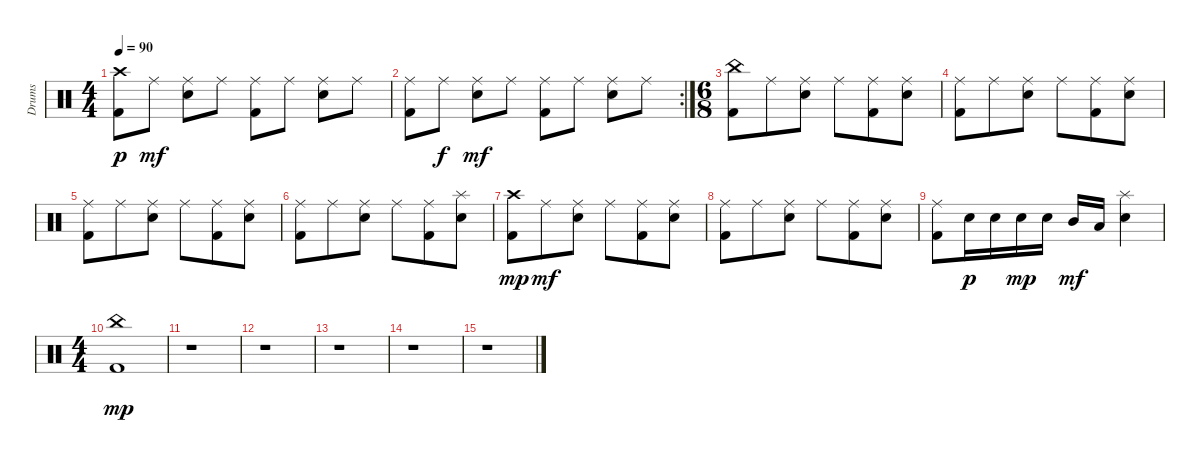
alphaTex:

\track ("Drums" "Drums") {instrument percussion}
\staff {score}
\articulation defaults
\ts (4 4)
\tempo 90
\clef neutral
\ks c
("Crash high (hit)" "Kick (hit) 2").8{dy p} "Ride (middle)".8{dy mf} ("Ride (middle)" "Electric Snare (hit)").8 "Ride (middle)".8 ("Ride (middle)" "Kick (hit) 2").8 "Ride (middle)".8 ("Ride (middle)" "Electric Snare (hit)").8 "Ride (middle)".8 |
\rc 2
("Ride (middle)" "Kick (hit) 2").8 "Ride (middle)".8{dy f} ("Ride (middle)" "Electric Snare (hit)").8{dy mf} "Ride (middle)".8 ("Ride (middle)" "Kick (hit) 2").8 "Ride (middle)".8 ("Ride (middle)" "Electric Snare (hit)").8 "Ride (middle)".8 |
\ts (6 8)
("China (hit)" "Kick (hit) 2").8 "Ride (middle)".8 ("Ride (middle)" "Electric Snare (hit)").8 "Ride (middle)".8 ("Ride (middle)" "Kick (hit) 2").8 ("Ride (middle)" "Electric Snare (hit)").8 |
("Ride (middle)" "Kick (hit) 2").8 "Ride (middle)".8 ("Ride (middle)" "Electric Snare (hit)").8 "Ride (middle)".8 ("Ride (middle)" "Kick (hit) 2").8 ("Ride (middle)" "Electric Snare (hit)").8 |
("Ride (middle)" "Kick (hit) 2").8 "Ride (middle)".8 ("Ride (middle)" "Electric Snare (hit)").8 "Ride (middle)".8 ("Ride (middle)" "Kick (hit) 2").8 ("Ride (middle)" "Electric Snare (hit)").8 |
("Ride (middle)" "Kick (hit) 2").8 "Ride (middle)".8 ("Ride (middle)" "Electric Snare (hit)").8 "Ride (middle)".8 ("Ride (middle)" "Kick (hit) 2").8 ("Splash (hit)" "Electric Snare (hit)").8 |
("Crash high (hit)" "Kick (hit) 2").8{dy mp} "Ride (middle)".8{dy mf} ("Ride (middle)" "Electric Snare (hit)").8 "Ride (middle)".8 ("Ride (middle)" "Kick (hit) 2").8 ("Ride (middle)" "Electric Snare (hit)").8 |
("Ride (middle)" "Kick (hit) 2").8 "Ride (middle)".8 ("Ride (middle)" "Electric Snare (hit)").8 "Ride (middle)".8 ("Ride (middle)" "Kick (hit) 2").8 ("Ride (middle)" "Electric Snare (hit)").8 |
("Ride (middle)" "Kick (hit) 2").8 "Electric Snare (hit)".16{dy p} "Electric Snare (hit)".16 "Electric Snare (hit)".16{dy mp} "Electric Snare (hit)".16 "Mid Tom (hit)".16{dy mf} "Low Tom (hit)".16 ("Splash (hit)" "Electric Snare (hit)").4 |
\ts (4 4)
("China (hit)" "Kick (hit) 2").1{dy mp} |
r.1 |
r.1 |
r.1 |
r.1 |
r.1
